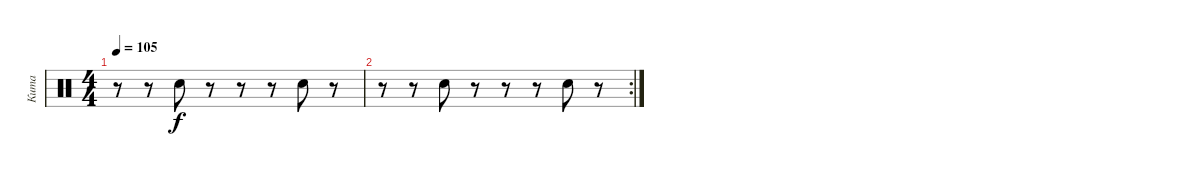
\track ("Кита" "Кита") {instrument percussion}
\staff {score}
\articulation defaults
\ts (4 4)
\tempo 105
\clef neutral
\ks c
r.8{dy f} r.8 "Hand Clap (hit)".8 r.8 r.8 r.8 "Hand Clap (hit)".8 r.8 |
\rc 2
r.8 r.8 "Hand Clap (hit)".8 r.8 r.8 r.8 "Hand Clap (hit)".8 r.8
